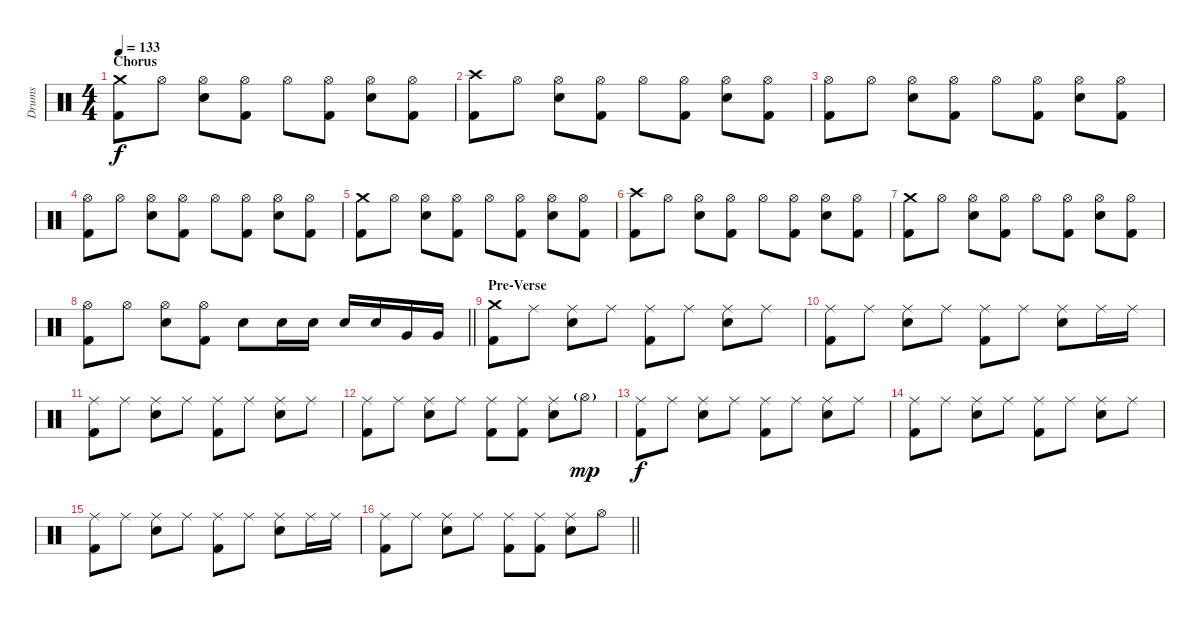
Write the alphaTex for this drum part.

\track ("Drums" "Drums") {instrument percussion}
\staff {score}
\articulation defaults
\ts (4 4)
\section ("" "Chorus")
\tempo 133
\clef neutral
\ks c
("Crash medium (hit)" "Kick (hit) 2").8{dy f} "Hi-Hat (open)".8 ("Hi-Hat (open)" "Snare (hit) 2").8 ("Hi-Hat (open)" "Kick (hit) 2").8 "Hi-Hat (open)".8 ("Hi-Hat (open)" "Kick (hit) 2").8 ("Hi-Hat (open)" "Snare (hit) 2").8 ("Hi-Hat (open)" "Kick (hit) 2").8 |
("Crash high (hit)" "Kick (hit) 2").8 "Hi-Hat (open)".8 ("Hi-Hat (open)" "Snare (hit) 2").8 ("Hi-Hat (open)" "Kick (hit) 2").8 "Hi-Hat (open)".8 ("Hi-Hat (open)" "Kick (hit) 2").8 ("Hi-Hat (open)" "Snare (hit) 2").8 ("Hi-Hat (open)" "Kick (hit) 2").8 |
("Hi-Hat (open)" "Kick (hit) 2").8 "Hi-Hat (open)".8 ("Hi-Hat (open)" "Snare (hit) 2").8 ("Hi-Hat (open)" "Kick (hit) 2").8 "Hi-Hat (open)".8 ("Hi-Hat (open)" "Kick (hit) 2").8 ("Hi-Hat (open)" "Snare (hit) 2").8 ("Hi-Hat (open)" "Kick (hit) 2").8 |
("Hi-Hat (open)" "Kick (hit) 2").8 "Hi-Hat (open)".8 ("Hi-Hat (open)" "Snare (hit) 2").8 ("Hi-Hat (open)" "Kick (hit) 2").8 "Hi-Hat (open)".8 ("Hi-Hat (open)" "Kick (hit) 2").8 ("Hi-Hat (open)" "Snare (hit) 2").8 ("Hi-Hat (open)" "Kick (hit) 2").8 |
("Crash medium (hit)" "Kick (hit) 2").8 "Hi-Hat (open)".8 ("Hi-Hat (open)" "Snare (hit) 2").8 ("Hi-Hat (open)" "Kick (hit) 2").8 "Hi-Hat (open)".8 ("Hi-Hat (open)" "Kick (hit) 2").8 ("Hi-Hat (open)" "Snare (hit) 2").8 ("Hi-Hat (open)" "Kick (hit) 2").8 |
("Crash high (hit)" "Kick (hit) 2").8 "Hi-Hat (open)".8 ("Hi-Hat (open)" "Snare (hit) 2").8 ("Hi-Hat (open)" "Kick (hit) 2").8 "Hi-Hat (open)".8 ("Hi-Hat (open)" "Kick (hit) 2").8 ("Hi-Hat (open)" "Snare (hit) 2").8 ("Hi-Hat (open)" "Kick (hit) 2").8 |
("Crash medium (hit)" "Kick (hit) 2").8 "Hi-Hat (open)".8 ("Hi-Hat (open)" "Snare (hit) 2").8 ("Hi-Hat (open)" "Kick (hit) 2").8 "Hi-Hat (open)".8 ("Hi-Hat (open)" "Kick (hit) 2").8 ("Hi-Hat (open)" "Snare (hit) 2").8 ("Hi-Hat (open)" "Kick (hit) 2").8 |
\barLineRight lightlight
("Hi-Hat (open)" "Kick (hit) 2").8 "Hi-Hat (open)".8 ("Hi-Hat (open)" "Snare (hit) 2").8 ("Hi-Hat (open)" "Kick (hit) 2").8 "Snare (hit) 2".8 "Snare (hit) 2".16 "Snare (hit) 2".16 "Snare (hit) 2".16 "Snare (hit) 2".16 "Very Low Tom (hit)".16 "Very Low Tom (hit)".16 |
\section ("" "Pre-Verse")
("Crash medium (hit)" "Kick (hit) 2").8 "Ride (middle)".8 ("Ride (middle)" "Snare (hit) 2").8 "Ride (middle)".8 ("Ride (middle)" "Kick (hit) 2").8 "Ride (middle)".8 ("Ride (middle)" "Snare (hit) 2").8 "Ride (middle)".8 |
("Ride (middle)" "Kick (hit) 2").8 "Ride (middle)".8 ("Ride (middle)" "Snare (hit) 2").8 "Ride (middle)".8 ("Ride (middle)" "Kick (hit) 2").8 "Ride (middle)".8 ("Ride (middle)" "Snare (hit) 2").8 "Ride (middle)".16 "Ride (middle)".16 |
("Ride (middle)" "Kick (hit) 2").8 "Ride (middle)".8 ("Ride (middle)" "Snare (hit) 2").8 "Ride (middle)".8 ("Ride (middle)" "Kick (hit) 2").8 "Ride (middle)".8 ("Ride (middle)" "Snare (hit) 2").8 "Ride (middle)".8 |
("Ride (middle)" "Kick (hit) 2").8 "Ride (middle)".8 ("Ride (middle)" "Snare (hit) 2").8 "Ride (middle)".8 ("Ride (middle)" "Kick (hit) 2").8 ("Ride (middle)" "Kick (hit) 2").8 ("Ride (middle)" "Snare (hit) 2").8 "Hi-Hat (open)"{g}.8{dy mp} |
("Ride (middle)" "Kick (hit) 2").8{dy f} "Ride (middle)".8 ("Ride (middle)" "Snare (hit) 2").8 "Ride (middle)".8 ("Ride (middle)" "Kick (hit) 2").8 "Ride (middle)".8 ("Ride (middle)" "Snare (hit) 2").8 "Ride (middle)".8 |
("Ride (middle)" "Kick (hit) 2").8 "Ride (middle)".8 ("Ride (middle)" "Snare (hit) 2").8 "Ride (middle)".8 ("Ride (middle)" "Kick (hit) 2").8 "Ride (middle)".8 ("Ride (middle)" "Snare (hit) 2").8 "Ride (middle)".8 |
("Ride (middle)" "Kick (hit) 2").8 "Ride (middle)".8 ("Ride (middle)" "Snare (hit) 2").8 "Ride (middle)".8 ("Ride (middle)" "Kick (hit) 2").8 "Ride (middle)".8 ("Ride (middle)" "Snare (hit) 2").8 "Ride (middle)".16 "Ride (middle)".16 |
\barLineRight lightlight
("Ride (middle)" "Kick (hit) 2").8 "Ride (middle)".8 ("Ride (middle)" "Snare (hit) 2").8 "Ride (middle)".8 ("Ride (middle)" "Kick (hit) 2").8 ("Ride (middle)" "Kick (hit) 2").8 ("Ride (middle)" "Snare (hit) 2").8 "Hi-Hat (open)".8
